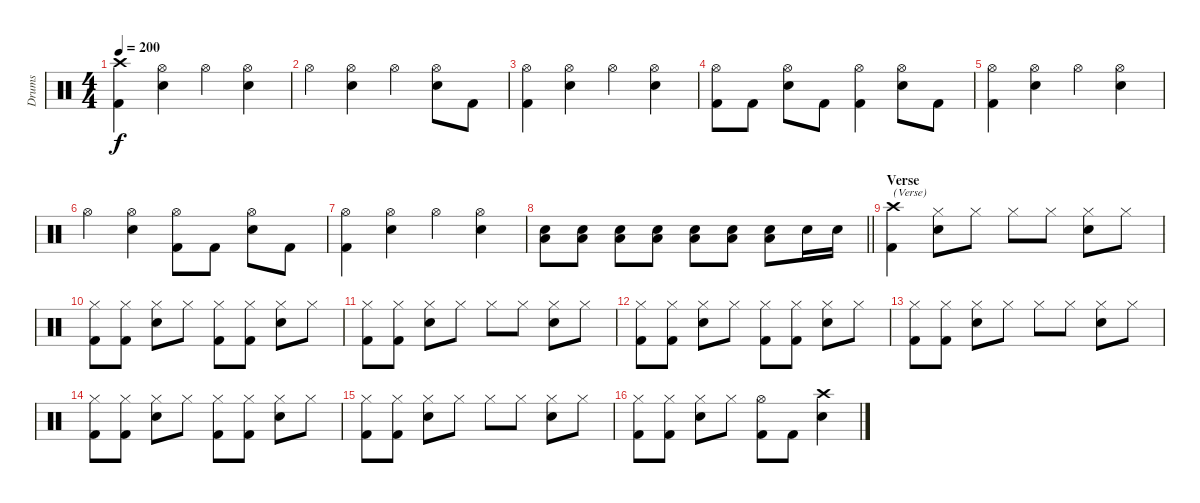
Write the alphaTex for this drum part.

\track ("Drums" "Drums") {instrument percussion}
\staff {score}
\articulation defaults
\ts (4 4)
\tempo 200
\clef neutral
\ks c
("Crash high (hit)" "Kick (hit) 2").4{dy f} ("Hi-Hat (open)" "Electric Snare (hit)").4 "Hi-Hat (open)".4 ("Hi-Hat (open)" "Electric Snare (hit)").4 |
"Hi-Hat (open)".4 ("Hi-Hat (open)" "Electric Snare (hit)").4 "Hi-Hat (open)".4 ("Hi-Hat (open)" "Electric Snare (hit)").8 "Kick (hit) 2".8 |
("Hi-Hat (open)" "Kick (hit) 2").4 ("Hi-Hat (open)" "Electric Snare (hit)").4 "Hi-Hat (open)".4 ("Hi-Hat (open)" "Electric Snare (hit)").4 |
("Hi-Hat (open)" "Kick (hit) 2").8 "Kick (hit) 2".8 ("Hi-Hat (open)" "Electric Snare (hit)").8 "Kick (hit) 2".8 ("Hi-Hat (open)" "Kick (hit) 2").4 ("Hi-Hat (open)" "Electric Snare (hit)").8 "Kick (hit) 2".8 |
("Hi-Hat (open)" "Kick (hit) 2").4 ("Hi-Hat (open)" "Electric Snare (hit)").4 "Hi-Hat (open)".4 ("Hi-Hat (open)" "Electric Snare (hit)").4 |
"Hi-Hat (open)".4 ("Hi-Hat (open)" "Electric Snare (hit)").4 ("Hi-Hat (open)" "Kick (hit) 2").8 "Kick (hit) 2".8 ("Hi-Hat (open)" "Electric Snare (hit)").8 "Kick (hit) 2".8 |
("Hi-Hat (open)" "Kick (hit) 2").4 ("Hi-Hat (open)" "Electric Snare (hit)").4 "Hi-Hat (open)".4 ("Hi-Hat (open)" "Electric Snare (hit)").4 |
\barLineRight lightlight
("Electric Snare (hit)" "Low Floor Tom (hit)").8 ("Electric Snare (hit)" "Low Floor Tom (hit)").8 ("Electric Snare (hit)" "Low Floor Tom (hit)").8 ("Electric Snare (hit)" "Low Floor Tom (hit)").8 ("Electric Snare (hit)" "Low Floor Tom (hit)").8 ("Electric Snare (hit)" "Low Floor Tom (hit)").8 ("Electric Snare (hit)" "Low Floor Tom (hit)").8 "Electric Snare (hit)".16 "Electric Snare (hit)".16 |
\section ("" "Verse")
("Crash high (hit)" "Kick (hit) 2").4{txt "(Verse)"} ("Hi-Hat (closed)" "Electric Snare (hit)").8 "Hi-Hat (closed)".8 "Hi-Hat (closed)".8 "Hi-Hat (closed)".8 ("Hi-Hat (closed)" "Electric Snare (hit)").8 "Hi-Hat (closed)".8 |
("Hi-Hat (closed)" "Kick (hit) 2").8 ("Hi-Hat (closed)" "Kick (hit) 2").8 ("Hi-Hat (closed)" "Electric Snare (hit)").8 "Hi-Hat (closed)".8 ("Hi-Hat (closed)" "Kick (hit) 2").8 ("Hi-Hat (closed)" "Kick (hit) 2").8 ("Hi-Hat (closed)" "Electric Snare (hit)").8 "Hi-Hat (closed)".8 |
("Hi-Hat (closed)" "Kick (hit) 2").8 ("Hi-Hat (closed)" "Kick (hit) 2").8 ("Hi-Hat (closed)" "Electric Snare (hit)").8 "Hi-Hat (closed)".8 "Hi-Hat (closed)".8 "Hi-Hat (closed)".8 ("Hi-Hat (closed)" "Electric Snare (hit)").8 "Hi-Hat (closed)".8 |
("Hi-Hat (closed)" "Kick (hit) 2").8 ("Hi-Hat (closed)" "Kick (hit) 2").8 ("Hi-Hat (closed)" "Electric Snare (hit)").8 "Hi-Hat (closed)".8 ("Hi-Hat (closed)" "Kick (hit) 2").8 ("Hi-Hat (closed)" "Kick (hit) 2").8 ("Hi-Hat (closed)" "Electric Snare (hit)").8 "Hi-Hat (closed)".8 |
("Hi-Hat (closed)" "Kick (hit) 2").8 ("Hi-Hat (closed)" "Kick (hit) 2").8 ("Hi-Hat (closed)" "Electric Snare (hit)").8 "Hi-Hat (closed)".8 "Hi-Hat (closed)".8 "Hi-Hat (closed)".8 ("Hi-Hat (closed)" "Electric Snare (hit)").8 "Hi-Hat (closed)".8 |
("Hi-Hat (closed)" "Kick (hit) 2").8 ("Hi-Hat (closed)" "Kick (hit) 2").8 ("Hi-Hat (closed)" "Electric Snare (hit)").8 "Hi-Hat (closed)".8 ("Hi-Hat (closed)" "Kick (hit) 2").8 ("Hi-Hat (closed)" "Kick (hit) 2").8 ("Hi-Hat (closed)" "Electric Snare (hit)").8 "Hi-Hat (closed)".8 |
("Hi-Hat (closed)" "Kick (hit) 2").8 ("Hi-Hat (closed)" "Kick (hit) 2").8 ("Hi-Hat (closed)" "Electric Snare (hit)").8 "Hi-Hat (closed)".8 "Hi-Hat (closed)".8 "Hi-Hat (closed)".8 ("Hi-Hat (closed)" "Electric Snare (hit)").8 "Hi-Hat (closed)".8 |
("Hi-Hat (closed)" "Kick (hit) 2").8 ("Hi-Hat (closed)" "Kick (hit) 2").8 ("Hi-Hat (closed)" "Electric Snare (hit)").8 "Hi-Hat (closed)".8 ("Hi-Hat (open)" "Kick (hit) 2").8 "Kick (hit) 2".8 ("Crash high (hit)" "Electric Snare (hit)").4
